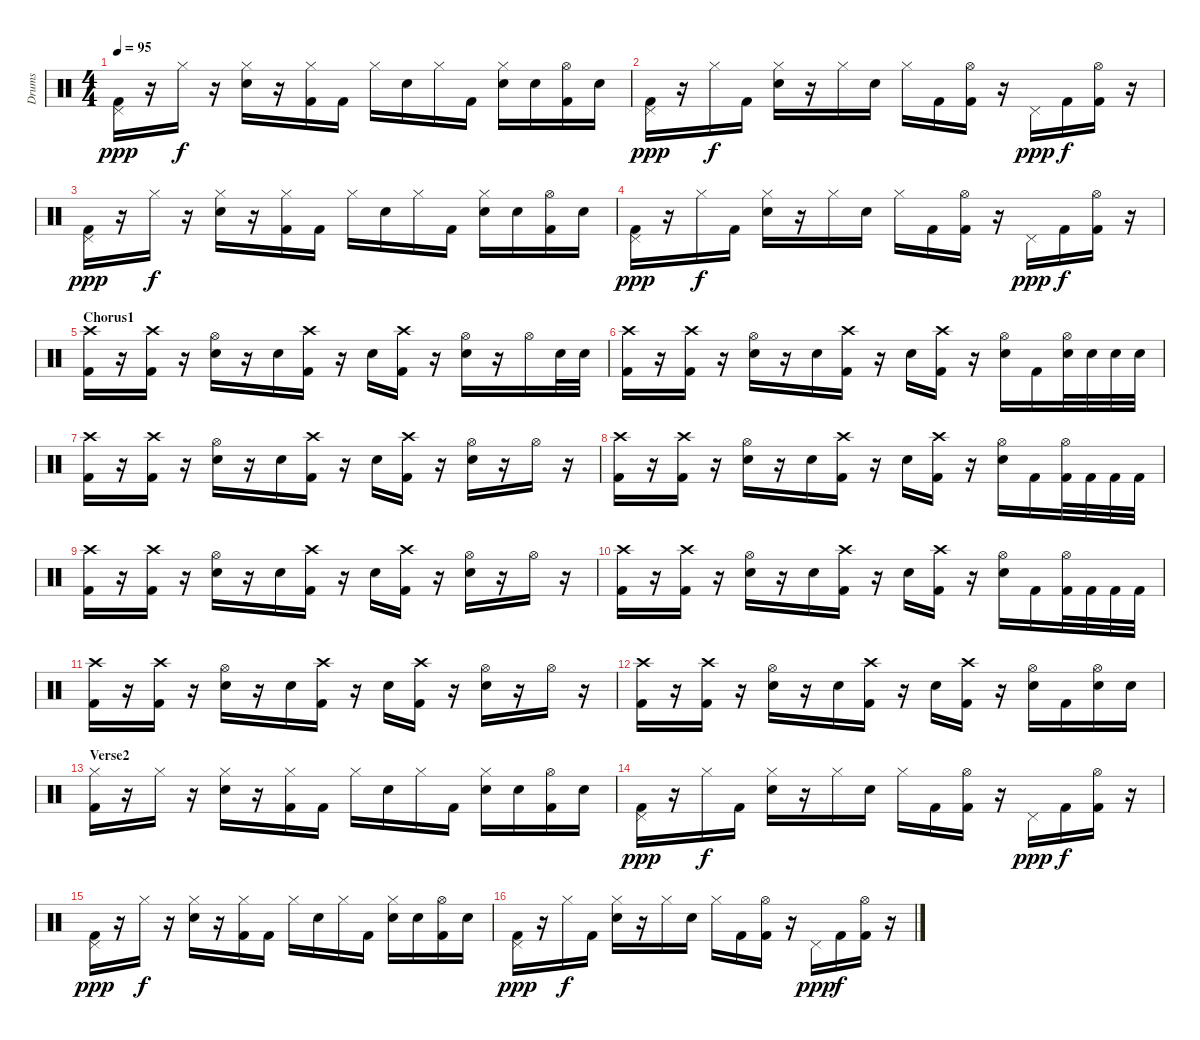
\track ("Drums" "Drums") {instrument percussion}
\staff {score}
\articulation defaults
\ts (4 4)
\tempo 95
\clef neutral
\ks c
("Pedal Hi-Hat (hit)" "Kick (hit) 2").16{dy ppp} r.16 "Hi-Hat (closed)".16{dy f} r.16 ("Hi-Hat (closed)" "Electric Snare (hit)").16 r.16 ("Hi-Hat (closed)" "Kick (hit) 2").16 "Kick (hit) 2".16 "Hi-Hat (closed)".16 "Electric Snare (hit)".16 "Hi-Hat (closed)".16 "Kick (hit) 2".16 ("Hi-Hat (closed)" "Electric Snare (hit)").16 "Electric Snare (hit)".16 ("Hi-Hat (open)" "Kick (hit) 2").16 "Electric Snare (hit)".16 |
("Pedal Hi-Hat (hit)" "Kick (hit) 2").16{dy ppp} r.16 "Hi-Hat (closed)".16{dy f} "Kick (hit) 2".16 ("Hi-Hat (closed)" "Electric Snare (hit)").16 r.16 "Hi-Hat (closed)".16 "Electric Snare (hit)".16 "Hi-Hat (closed)".16 "Kick (hit) 2".16 ("Hi-Hat (open)" "Kick (hit) 2").16 r.16 "Pedal Hi-Hat (hit)".16{dy ppp} "Kick (hit) 2".16{dy f} ("Hi-Hat (open)" "Kick (hit) 2").16 r.16 |
("Pedal Hi-Hat (hit)" "Kick (hit) 2").16{dy ppp} r.16 "Hi-Hat (closed)".16{dy f} r.16 ("Hi-Hat (closed)" "Electric Snare (hit)").16 r.16 ("Hi-Hat (closed)" "Kick (hit) 2").16 "Kick (hit) 2".16 "Hi-Hat (closed)".16 "Electric Snare (hit)".16 "Hi-Hat (closed)".16 "Kick (hit) 2".16 ("Hi-Hat (closed)" "Electric Snare (hit)").16 "Electric Snare (hit)".16 ("Hi-Hat (open)" "Kick (hit) 2").16 "Electric Snare (hit)".16 |
("Pedal Hi-Hat (hit)" "Kick (hit) 2").16{dy ppp} r.16 "Hi-Hat (closed)".16{dy f} "Kick (hit) 2".16 ("Hi-Hat (closed)" "Electric Snare (hit)").16 r.16 "Hi-Hat (closed)".16 "Electric Snare (hit)".16 "Hi-Hat (closed)".16 "Kick (hit) 2".16 ("Hi-Hat (open)" "Kick (hit) 2").16 r.16 "Pedal Hi-Hat (hit)".16{dy ppp} "Kick (hit) 2".16{dy f} ("Hi-Hat (open)" "Kick (hit) 2").16 r.16 |
\section ("" "Chorus1")
("Crash high (hit)" "Kick (hit) 2").16 r.16 ("Crash high (hit)" "Kick (hit) 2").16 r.16 ("Hi-Hat (open)" "Electric Snare (hit)").16 r.16 "Electric Snare (hit)".16 ("Crash high (hit)" "Kick (hit) 2").16 r.16 "Electric Snare (hit)".16 ("Crash high (hit)" "Kick (hit) 2").16 r.16 ("Hi-Hat (open)" "Electric Snare (hit)").16 r.16 "Hi-Hat (open)".16 "Electric Snare (hit)".32 "Electric Snare (hit)".32 |
("Crash high (hit)" "Kick (hit) 2").16 r.16 ("Crash high (hit)" "Kick (hit) 2").16 r.16 ("Hi-Hat (open)" "Electric Snare (hit)").16 r.16 "Electric Snare (hit)".16 ("Crash high (hit)" "Kick (hit) 2").16 r.16 "Electric Snare (hit)".16 ("Crash high (hit)" "Kick (hit) 2").16 r.16 ("Hi-Hat (open)" "Electric Snare (hit)").16 "Kick (hit) 2".16 ("Hi-Hat (open)" "Electric Snare (hit)").32 "Electric Snare (hit)".32 "Electric Snare (hit)".32 "Electric Snare (hit)".32 |
("Crash high (hit)" "Kick (hit) 2").16 r.16 ("Crash high (hit)" "Kick (hit) 2").16 r.16 ("Hi-Hat (open)" "Electric Snare (hit)").16 r.16 "Electric Snare (hit)".16 ("Crash high (hit)" "Kick (hit) 2").16 r.16 "Electric Snare (hit)".16 ("Crash high (hit)" "Kick (hit) 2").16 r.16 ("Hi-Hat (open)" "Electric Snare (hit)").16 r.16 "Hi-Hat (open)".16 r.16 |
("Crash high (hit)" "Kick (hit) 2").16 r.16 ("Crash high (hit)" "Kick (hit) 2").16 r.16 ("Hi-Hat (open)" "Electric Snare (hit)").16 r.16 "Electric Snare (hit)".16 ("Crash high (hit)" "Kick (hit) 2").16 r.16 "Electric Snare (hit)".16 ("Crash high (hit)" "Kick (hit) 2").16 r.16 ("Hi-Hat (open)" "Electric Snare (hit)").16 "Kick (hit) 2".16 ("Hi-Hat (open)" "Kick (hit) 2").32 "Kick (hit) 2".32 "Kick (hit) 2".32 "Kick (hit) 2".32 |
("Crash high (hit)" "Kick (hit) 2").16 r.16 ("Crash high (hit)" "Kick (hit) 2").16 r.16 ("Hi-Hat (open)" "Electric Snare (hit)").16 r.16 "Electric Snare (hit)".16 ("Crash high (hit)" "Kick (hit) 2").16 r.16 "Electric Snare (hit)".16 ("Crash high (hit)" "Kick (hit) 2").16 r.16 ("Hi-Hat (open)" "Electric Snare (hit)").16 r.16 "Hi-Hat (open)".16 r.16 |
("Crash high (hit)" "Kick (hit) 2").16 r.16 ("Crash high (hit)" "Kick (hit) 2").16 r.16 ("Hi-Hat (open)" "Electric Snare (hit)").16 r.16 "Electric Snare (hit)".16 ("Crash high (hit)" "Kick (hit) 2").16 r.16 "Electric Snare (hit)".16 ("Crash high (hit)" "Kick (hit) 2").16 r.16 ("Hi-Hat (open)" "Electric Snare (hit)").16 "Kick (hit) 2".16 ("Hi-Hat (open)" "Kick (hit) 2").32 "Kick (hit) 2".32 "Kick (hit) 2".32 "Kick (hit) 2".32 |
("Crash high (hit)" "Kick (hit) 2").16 r.16 ("Crash high (hit)" "Kick (hit) 2").16 r.16 ("Hi-Hat (open)" "Electric Snare (hit)").16 r.16 "Electric Snare (hit)".16 ("Crash high (hit)" "Kick (hit) 2").16 r.16 "Electric Snare (hit)".16 ("Crash high (hit)" "Kick (hit) 2").16 r.16 ("Hi-Hat (open)" "Electric Snare (hit)").16 r.16 "Hi-Hat (open)".16 r.16 |
("Crash high (hit)" "Kick (hit) 2").16 r.16 ("Crash high (hit)" "Kick (hit) 2").16 r.16 ("Hi-Hat (open)" "Electric Snare (hit)").16 r.16 "Electric Snare (hit)".16 ("Crash high (hit)" "Kick (hit) 2").16 r.16 "Electric Snare (hit)".16 ("Crash high (hit)" "Kick (hit) 2").16 r.16 ("Hi-Hat (open)" "Electric Snare (hit)").16 "Kick (hit) 2".16 ("Hi-Hat (open)" "Electric Snare (hit)").16 "Electric Snare (hit)".16 |
\section ("" "Verse2")
("Hi-Hat (closed)" "Kick (hit) 2").16 r.16 "Hi-Hat (closed)".16 r.16 ("Hi-Hat (closed)" "Electric Snare (hit)").16 r.16 ("Hi-Hat (closed)" "Kick (hit) 2").16 "Kick (hit) 2".16 "Hi-Hat (closed)".16 "Electric Snare (hit)".16 "Hi-Hat (closed)".16 "Kick (hit) 2".16 ("Hi-Hat (closed)" "Electric Snare (hit)").16 "Electric Snare (hit)".16 ("Hi-Hat (open)" "Kick (hit) 2").16 "Electric Snare (hit)".16 |
("Pedal Hi-Hat (hit)" "Kick (hit) 2").16{dy ppp} r.16 "Hi-Hat (closed)".16{dy f} "Kick (hit) 2".16 ("Hi-Hat (closed)" "Electric Snare (hit)").16 r.16 "Hi-Hat (closed)".16 "Electric Snare (hit)".16 "Hi-Hat (closed)".16 "Kick (hit) 2".16 ("Hi-Hat (open)" "Kick (hit) 2").16 r.16 "Pedal Hi-Hat (hit)".16{dy ppp} "Kick (hit) 2".16{dy f} ("Hi-Hat (open)" "Kick (hit) 2").16 r.16 |
("Pedal Hi-Hat (hit)" "Kick (hit) 2").16{dy ppp} r.16 "Hi-Hat (closed)".16{dy f} r.16 ("Hi-Hat (closed)" "Electric Snare (hit)").16 r.16 ("Hi-Hat (closed)" "Kick (hit) 2").16 "Kick (hit) 2".16 "Hi-Hat (closed)".16 "Electric Snare (hit)".16 "Hi-Hat (closed)".16 "Kick (hit) 2".16 ("Hi-Hat (closed)" "Electric Snare (hit)").16 "Electric Snare (hit)".16 ("Hi-Hat (open)" "Kick (hit) 2").16 "Electric Snare (hit)".16 |
("Pedal Hi-Hat (hit)" "Kick (hit) 2").16{dy ppp} r.16 "Hi-Hat (closed)".16{dy f} "Kick (hit) 2".16 ("Hi-Hat (closed)" "Electric Snare (hit)").16 r.16 "Hi-Hat (closed)".16 "Electric Snare (hit)".16 "Hi-Hat (closed)".16 "Kick (hit) 2".16 ("Hi-Hat (open)" "Kick (hit) 2").16 r.16 "Pedal Hi-Hat (hit)".16{dy ppp} "Kick (hit) 2".16{dy f} ("Hi-Hat (open)" "Kick (hit) 2").16 r.16
